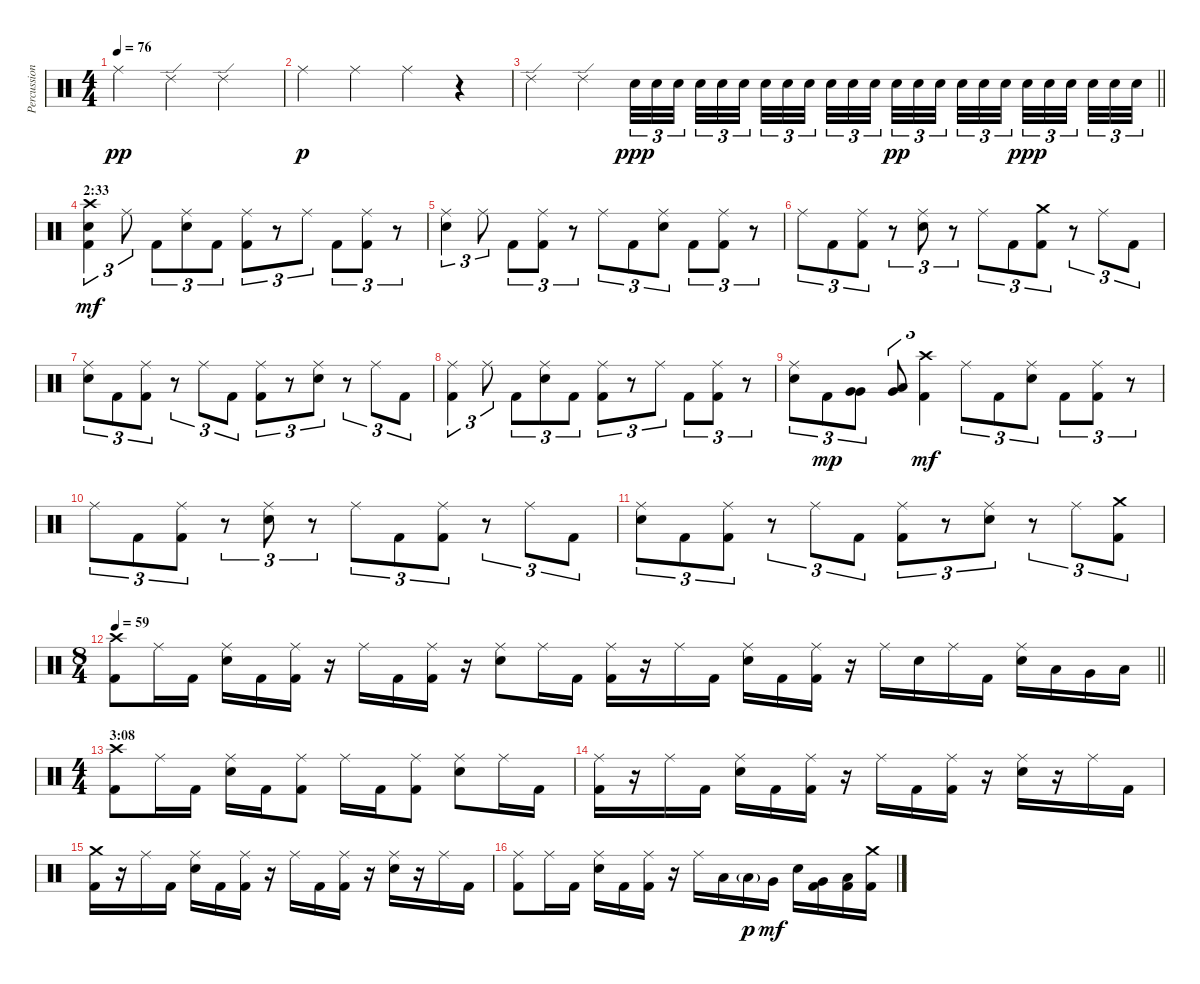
\track ("Percussions" "Percussion") {instrument percussion}
\staff {score}
\articulation defaults
\ts (4 4)
\tempo 76
\clef neutral
\ks c "Ride (middle)".4{dy pp} "Ride (edge) 2".4 "Ride (edge) 2".2
|
"Ride (middle)".4{dy p} "Ride (middle)".4 "Ride (middle)".4 r.4 |
\barLineRight lightlight "Ride (edge) 2".4 "Ride (edge) 2".4 "Electric Snare (hit)".32{tu (3 2) dy ppp} "Electric Snare (hit)".32{tu (3 2)} "Electric Snare (hit)".32{tu (3 2) beam splitsecondary} "Electric Snare (hit)".32{tu (3 2)} "Electric Snare (hit)".32{tu (3 2)} "Electric Snare (hit)".32{tu (3 2) beam splitsecondary} "Electric Snare (hit)".32{tu (3 2)} "Electric Snare (hit)".32{tu (3 2)} "Electric Snare (hit)".32{tu (3 2) beam splitsecondary} "Electric Snare (hit)".32{tu (3 2)} "Electric Snare (hit)".32{tu (3 2)} "Electric Snare (hit)".32{tu (3 2)} "Electric Snare (hit)".32{tu (3 2) dy pp} "Electric Snare (hit)".32{tu (3 2)} "Electric Snare (hit)".32{tu (3 2) beam splitsecondary} "Electric Snare (hit)".32{tu (3 2)} "Electric Snare (hit)".32{tu (3 2)} "Electric Snare (hit)".32{tu (3 2) beam splitsecondary} "Electric Snare (hit)".32{tu (3 2) dy ppp} "Electric Snare (hit)".32{tu (3 2)} "Electric Snare (hit)".32{tu (3 2) beam splitsecondary} "Electric Snare (hit)".32{tu (3 2)} "Electric Snare (hit)".32{tu (3 2)} "Electric Snare (hit)".32{tu (3 2)}
|
\section ("" "2:33")
("Crash high (hit)" "Snare (hit) 2" "Kick (hit) 2").4{tu (3 2) dy mf} "Ride (middle)".8{tu (3 2)} "Kick (hit) 2".8{tu (3 2)} ("Ride (middle)" "Snare (hit) 2").8{tu (3 2)} "Kick (hit) 2".8{tu (3 2)} ("Ride (middle)" "Kick (hit) 2").8{tu (3 2)} r.8{tu (3 2)} "Ride (middle)".8{tu (3 2)} "Kick (hit) 2".8{tu (3 2)} ("Ride (middle)" "Kick (hit) 2").8{tu (3 2)} r.8{tu (3 2)} |
("Ride (middle)" "Snare (hit) 2").4{tu (3 2)} "Ride (middle)".8{tu (3 2)} "Kick (hit) 2".8{tu (3 2)} ("Ride (middle)" "Kick (hit) 2").8{tu (3 2)} r.8{tu (3 2)} "Ride (middle)".8{tu (3 2)} "Kick (hit) 2".8{tu (3 2)} ("Ride (middle)" "Snare (hit) 2").8{tu (3 2)} "Kick (hit) 2".8{tu (3 2)} ("Ride (middle)" "Kick (hit) 2").8{tu (3 2)} r.8{tu (3 2)} |
"Ride (middle)".8{tu (3 2)} "Kick (hit) 2".8{tu (3 2)} ("Ride (middle)" "Kick (hit) 2").8{tu (3 2)} r.8{tu (3 2)} ("Ride (middle)" "Snare (hit) 2").8{tu (3 2)} r.8{tu (3 2)} "Ride (middle)".8{tu (3 2)} "Kick (hit) 2".8{tu (3 2)} ("Crash medium (hit)" "Kick (hit) 2").8{tu (3 2)} r.8{tu (3 2)} "Ride (middle)".8{tu (3 2)} "Kick (hit) 2".8{tu (3 2)} |
("Ride (middle)" "Snare (hit) 2").8{tu (3 2)} "Kick (hit) 2".8{tu (3 2)} ("Ride (middle)" "Kick (hit) 2").8{tu (3 2)} r.8{tu (3 2)} "Ride (middle)".8{tu (3 2)} "Kick (hit) 2".8{tu (3 2)} ("Ride (middle)" "Kick (hit) 2").8{tu (3 2)} r.8{tu (3 2)} ("Ride (middle)" "Snare (hit) 2").8{tu (3 2)} r.8{tu (3 2)} "Ride (middle)".8{tu (3 2)} "Kick (hit) 2".8{tu (3 2)} |
("Ride (middle)" "Kick (hit) 2").4{tu (3 2)} "Ride (middle)".8{tu (3 2)} "Kick (hit) 2".8{tu (3 2)} ("Ride (middle)" "Snare (hit) 2").8{tu (3 2)} "Kick (hit) 2".8{tu (3 2)} ("Ride (middle)" "Kick (hit) 2").8{tu (3 2)} r.8{tu (3 2)} "Ride (middle)".8{tu (3 2)} "Kick (hit) 2".8{tu (3 2)} ("Ride (middle)" "Kick (hit) 2").8{tu (3 2)} r.8{tu (3 2)} |
("Ride (middle)" "Snare (hit) 2").8{tu (3 2)} "Kick (hit) 2".8{tu (3 2) dy mp} ("Very Low Tom (hit)" "Very Low Tom (hit)").8{tu (3 2)} ("Low Floor Tom (hit)" "Very Low Tom (hit)").8{tu (3 2)} ("Crash high (hit)" "Kick (hit) 2").4{tu (3 2) dy mf} "Ride (middle)".8{tu (3 2)} "Kick (hit) 2".8{tu (3 2)} ("Ride (middle)" "Snare (hit) 2").8{tu (3 2)} "Kick (hit) 2".8{tu (3 2)} ("Ride (middle)" "Kick (hit) 2").8{tu (3 2)} r.8{tu (3 2)} |
"Ride (middle)".8{tu (3 2)} "Kick (hit) 2".8{tu (3 2)} ("Ride (middle)" "Kick (hit) 2").8{tu (3 2)} r.8{tu (3 2)} ("Ride (middle)" "Snare (hit) 2").8{tu (3 2)} r.8{tu (3 2)} "Ride (middle)".8{tu (3 2)} "Kick (hit) 2".8{tu (3 2)} ("Ride (middle)" "Kick (hit) 2").8{tu (3 2)} r.8{tu (3 2)} "Ride (middle)".8{tu (3 2)} "Kick (hit) 2".8{tu (3 2)} |
("Ride (middle)" "Snare (hit) 2").8{tu (3 2)} "Kick (hit) 2".8{tu (3 2)} ("Ride (middle)" "Kick (hit) 2").8{tu (3 2)} r.8{tu (3 2)} "Ride (middle)".8{tu (3 2)} "Kick (hit) 2".8{tu (3 2)} ("Ride (middle)" "Kick (hit) 2").8{tu (3 2)} r.8{tu (3 2)} ("Ride (middle)" "Snare (hit) 2").8{tu (3 2)} r.8{tu (3 2)} "Ride (middle)".8{tu (3 2)} ("Crash medium (hit)" "Kick (hit) 2").8{tu (3 2)} |
\ts (8 4)
\tempo 59
\barLineRight lightlight
("Crash high (hit)" "Kick (hit) 2").8 "Ride (middle)".16 "Kick (hit) 2".16 ("Ride (middle)" "Snare (hit) 2").16 "Kick (hit) 2".16 ("Ride (middle)" "Kick (hit) 2").16 r.16 "Ride (middle)".16 "Kick (hit) 2".16 ("Ride (middle)" "Kick (hit) 2").16 r.16 ("Ride (middle)" "Snare (hit) 2").8 "Ride (middle)".16 "Kick (hit) 2".16 ("Ride (middle)" "Kick (hit) 2").16 r.16 "Ride (middle)".16 "Kick (hit) 2".16 ("Ride (middle)" "Snare (hit) 2").16 "Kick (hit) 2".16 ("Ride (middle)" "Kick (hit) 2").16 r.16 "Ride (middle)".16 "Snare (hit) 2".16 "Ride (middle)".16 "Kick (hit) 2".16 ("Ride (middle)" "Snare (hit) 2").16 "Low Tom (hit)".16 "Very Low Tom (hit)".16 "Low Floor Tom (hit)".16 |
\ts (4 4)
\section ("" "3:08")
("Crash high (hit)" "Kick (hit) 2").8 "Ride (middle)".16 "Kick (hit) 2".16 ("Ride (middle)" "Snare (hit) 2").16 "Kick (hit) 2".16 ("Ride (middle)" "Kick (hit) 2").8 "Ride (middle)".16 "Kick (hit) 2".16 ("Ride (middle)" "Kick (hit) 2").8 ("Ride (middle)" "Snare (hit) 2").8 "Ride (middle)".16 "Kick (hit) 2".16 |
("Ride (middle)" "Kick (hit) 2").16 r.16 "Ride (middle)".16 "Kick (hit) 2".16 ("Ride (middle)" "Snare (hit) 2").16 "Kick (hit) 2".16 ("Ride (middle)" "Kick (hit) 2").16 r.16 "Ride (middle)".16 "Kick (hit) 2".16 ("Ride (middle)" "Kick (hit) 2").16 r.16 ("Ride (middle)" "Snare (hit) 2").16 r.16 "Ride (middle)".16 "Kick (hit) 2".16 |
("Crash medium (hit)" "Kick (hit) 2").16 r.16 "Ride (middle)".16 "Kick (hit) 2".16 ("Ride (middle)" "Snare (hit) 2").16 "Kick (hit) 2".16 ("Ride (middle)" "Kick (hit) 2").16 r.16 "Ride (middle)".16 "Kick (hit) 2".16 ("Ride (middle)" "Kick (hit) 2").16 r.16 ("Ride (middle)" "Snare (hit) 2").16 r.16 "Ride (middle)".16 "Kick (hit) 2".16 |
("Ride (middle)" "Kick (hit) 2").8 "Ride (middle)".16 "Kick (hit) 2".16 ("Ride (middle)" "Snare (hit) 2").16 "Kick (hit) 2".16 ("Ride (middle)" "Kick (hit) 2").16 r.16 "Ride (middle)".16 "Low Tom (hit)".16 "Low Floor Tom (hit)"{g}.16{dy p} "Very Low Tom (hit)".16{dy mf} "Snare (hit) 2".16 ("Very Low Tom (hit)" "Kick (hit) 2").16 ("Low Floor Tom (hit)" "Kick (hit) 2").16 ("Crash medium (hit)" "Kick (hit) 2").16
